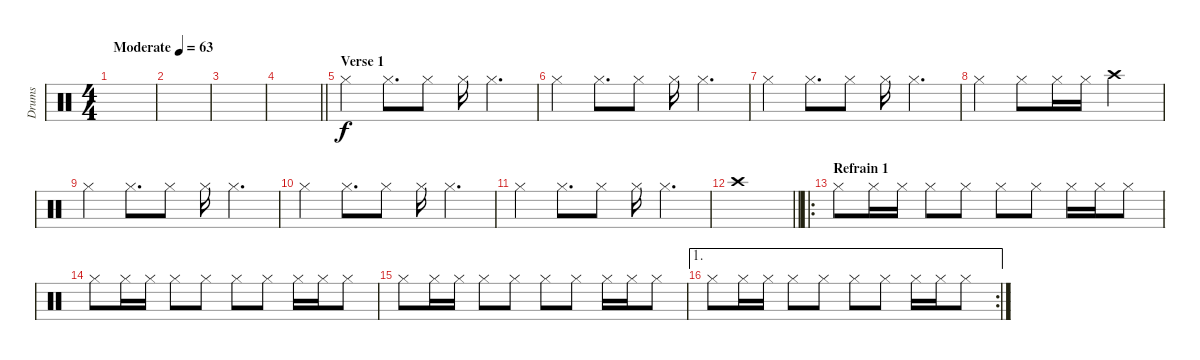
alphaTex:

\track ("Drums" "Drums") {instrument percussion}
\staff {score}
\articulation defaults
\ts (4 4)
\tempo (63 "Moderate")
\clef neutral
\ks c
|
|
|
\barLineRight lightlight
|
\section ("" "Verse 1")
"Hi-Hat (closed)".4 "Hi-Hat (closed)".8{d} "Hi-Hat (closed)".8 "Hi-Hat (closed)".16 "Hi-Hat (closed)".4{d} |
"Hi-Hat (closed)".4 "Hi-Hat (closed)".8{d} "Hi-Hat (closed)".8 "Hi-Hat (closed)".16 "Hi-Hat (closed)".4{d} |
"Hi-Hat (closed)".4 "Hi-Hat (closed)".8{d} "Hi-Hat (closed)".8 "Hi-Hat (closed)".16 "Hi-Hat (closed)".4{d} |
"Hi-Hat (closed)".4 "Hi-Hat (closed)".8 "Hi-Hat (closed)".16 "Hi-Hat (closed)".16 "Crash high (hit)".2 |
"Hi-Hat (closed)".4 "Hi-Hat (closed)".8{d} "Hi-Hat (closed)".8 "Hi-Hat (closed)".16 "Hi-Hat (closed)".4{d} |
"Hi-Hat (closed)".4 "Hi-Hat (closed)".8{d} "Hi-Hat (closed)".8 "Hi-Hat (closed)".16 "Hi-Hat (closed)".4{d} |
"Hi-Hat (closed)".4 "Hi-Hat (closed)".8{d} "Hi-Hat (closed)".8 "Hi-Hat (closed)".16 "Hi-Hat (closed)".4{d} |
\barLineRight lightlight "Crash high (hit)".1
|
\ro
\section ("" "Refrain 1")
"Hi-Hat (closed)".8 "Hi-Hat (closed)".16 "Hi-Hat (closed)".16 "Hi-Hat (closed)".8 "Hi-Hat (closed)".8 "Hi-Hat (closed)".8 "Hi-Hat (closed)".8 "Hi-Hat (closed)".16 "Hi-Hat (closed)".16 "Hi-Hat (closed)".8 |
"Hi-Hat (closed)".8 "Hi-Hat (closed)".16 "Hi-Hat (closed)".16 "Hi-Hat (closed)".8 "Hi-Hat (closed)".8 "Hi-Hat (closed)".8 "Hi-Hat (closed)".8 "Hi-Hat (closed)".16 "Hi-Hat (closed)".16 "Hi-Hat (closed)".8 |
"Hi-Hat (closed)".8 "Hi-Hat (closed)".16 "Hi-Hat (closed)".16 "Hi-Hat (closed)".8 "Hi-Hat (closed)".8 "Hi-Hat (closed)".8 "Hi-Hat (closed)".8 "Hi-Hat (closed)".16 "Hi-Hat (closed)".16 "Hi-Hat (closed)".8 |
\ae 1
\rc 2 "Hi-Hat (closed)".8 "Hi-Hat (closed)".16 "Hi-Hat (closed)".16 "Hi-Hat (closed)".8 "Hi-Hat (closed)".8 "Hi-Hat (closed)".8 "Hi-Hat (closed)".8 "Hi-Hat (closed)".16 "Hi-Hat (closed)".16 "Hi-Hat (closed)".8
